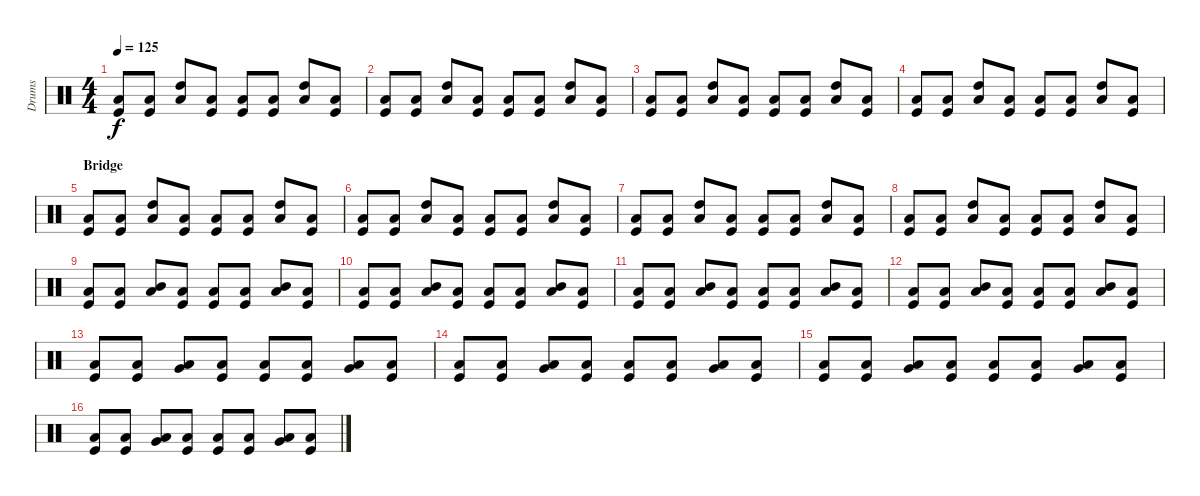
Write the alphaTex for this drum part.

\track ("Drums" "Drums") {instrument percussion}
\staff {score}
\articulation defaults
\ts (4 4)
\tempo 125
\clef neutral
\ks c
("Low Floor Tom (hit)" "Kick (hit)").8{dy f} ("Low Floor Tom (hit)" "Kick (hit)").8 ("Low Floor Tom (hit)" "High Tom (hit)").8 ("Low Floor Tom (hit)" "Kick (hit)").8 ("Low Floor Tom (hit)" "Kick (hit)").8 ("Low Floor Tom (hit)" "Kick (hit)").8 ("Low Floor Tom (hit)" "High Tom (hit)").8 ("Low Floor Tom (hit)" "Kick (hit)").8 |
("Low Floor Tom (hit)" "Kick (hit)").8 ("Low Floor Tom (hit)" "Kick (hit)").8 ("Low Floor Tom (hit)" "High Tom (hit)").8 ("Low Floor Tom (hit)" "Kick (hit)").8 ("Low Floor Tom (hit)" "Kick (hit)").8 ("Low Floor Tom (hit)" "Kick (hit)").8 ("Low Floor Tom (hit)" "High Tom (hit)").8 ("Low Floor Tom (hit)" "Kick (hit)").8 |
("Low Floor Tom (hit)" "Kick (hit)").8 ("Low Floor Tom (hit)" "Kick (hit)").8 ("Low Floor Tom (hit)" "High Tom (hit)").8 ("Low Floor Tom (hit)" "Kick (hit)").8 ("Low Floor Tom (hit)" "Kick (hit)").8 ("Low Floor Tom (hit)" "Kick (hit)").8 ("Low Floor Tom (hit)" "High Tom (hit)").8 ("Low Floor Tom (hit)" "Kick (hit)").8 |
("Low Floor Tom (hit)" "Kick (hit)").8 ("Low Floor Tom (hit)" "Kick (hit)").8 ("Low Floor Tom (hit)" "High Tom (hit)").8 ("Low Floor Tom (hit)" "Kick (hit)").8 ("Low Floor Tom (hit)" "Kick (hit)").8 ("Low Floor Tom (hit)" "Kick (hit)").8 ("Low Floor Tom (hit)" "High Tom (hit)").8 ("Low Floor Tom (hit)" "Kick (hit)").8 |
\section ("" "Bridge")
("Low Floor Tom (hit)" "Kick (hit)").8 ("Low Floor Tom (hit)" "Kick (hit)").8 ("Low Floor Tom (hit)" "High Tom (hit)").8 ("Low Floor Tom (hit)" "Kick (hit)").8 ("Low Floor Tom (hit)" "Kick (hit)").8 ("Low Floor Tom (hit)" "Kick (hit)").8 ("Low Floor Tom (hit)" "High Tom (hit)").8 ("Low Floor Tom (hit)" "Kick (hit)").8 |
("Low Floor Tom (hit)" "Kick (hit)").8 ("Low Floor Tom (hit)" "Kick (hit)").8 ("Low Floor Tom (hit)" "High Tom (hit)").8 ("Low Floor Tom (hit)" "Kick (hit)").8 ("Low Floor Tom (hit)" "Kick (hit)").8 ("Low Floor Tom (hit)" "Kick (hit)").8 ("Low Floor Tom (hit)" "High Tom (hit)").8 ("Low Floor Tom (hit)" "Kick (hit)").8 |
("Low Floor Tom (hit)" "Kick (hit)").8 ("Low Floor Tom (hit)" "Kick (hit)").8 ("Low Floor Tom (hit)" "High Tom (hit)").8 ("Low Floor Tom (hit)" "Kick (hit)").8 ("Low Floor Tom (hit)" "Kick (hit)").8 ("Low Floor Tom (hit)" "Kick (hit)").8 ("Low Floor Tom (hit)" "High Tom (hit)").8 ("Low Floor Tom (hit)" "Kick (hit)").8 |
("Low Floor Tom (hit)" "Kick (hit)").8 ("Low Floor Tom (hit)" "Kick (hit)").8 ("Low Floor Tom (hit)" "High Tom (hit)").8 ("Low Floor Tom (hit)" "Kick (hit)").8 ("Low Floor Tom (hit)" "Kick (hit)").8 ("Low Floor Tom (hit)" "Kick (hit)").8 ("Low Floor Tom (hit)" "High Tom (hit)").8 ("Low Floor Tom (hit)" "Kick (hit)").8 |
("Low Floor Tom (hit)" "Kick (hit)").8 ("Low Floor Tom (hit)" "Kick (hit)").8 ("Low Floor Tom (hit)" "Mid Tom (hit)").8 ("Low Floor Tom (hit)" "Kick (hit)").8 ("Low Floor Tom (hit)" "Kick (hit)").8 ("Low Floor Tom (hit)" "Kick (hit)").8 ("Low Floor Tom (hit)" "Mid Tom (hit)").8 ("Low Floor Tom (hit)" "Kick (hit)").8 |
("Low Floor Tom (hit)" "Kick (hit)").8 ("Low Floor Tom (hit)" "Kick (hit)").8 ("Low Floor Tom (hit)" "Mid Tom (hit)").8 ("Low Floor Tom (hit)" "Kick (hit)").8 ("Low Floor Tom (hit)" "Kick (hit)").8 ("Low Floor Tom (hit)" "Kick (hit)").8 ("Low Floor Tom (hit)" "Mid Tom (hit)").8 ("Low Floor Tom (hit)" "Kick (hit)").8 |
("Low Floor Tom (hit)" "Kick (hit)").8 ("Low Floor Tom (hit)" "Kick (hit)").8 ("Low Floor Tom (hit)" "Mid Tom (hit)").8 ("Low Floor Tom (hit)" "Kick (hit)").8 ("Low Floor Tom (hit)" "Kick (hit)").8 ("Low Floor Tom (hit)" "Kick (hit)").8 ("Low Floor Tom (hit)" "Mid Tom (hit)").8 ("Low Floor Tom (hit)" "Kick (hit)").8 |
("Low Floor Tom (hit)" "Kick (hit)").8 ("Low Floor Tom (hit)" "Kick (hit)").8 ("Low Floor Tom (hit)" "Mid Tom (hit)").8 ("Low Floor Tom (hit)" "Kick (hit)").8 ("Low Floor Tom (hit)" "Kick (hit)").8 ("Low Floor Tom (hit)" "Kick (hit)").8 ("Low Floor Tom (hit)" "Mid Tom (hit)").8 ("Low Floor Tom (hit)" "Kick (hit)").8 |
("Low Floor Tom (hit)" "Kick (hit)").8 ("Low Floor Tom (hit)" "Kick (hit)").8 ("Low Floor Tom (hit)" "Very Low Tom (hit)").8 ("Low Floor Tom (hit)" "Kick (hit)").8 ("Low Floor Tom (hit)" "Kick (hit)").8 ("Low Floor Tom (hit)" "Kick (hit)").8 ("Low Floor Tom (hit)" "Very Low Tom (hit)").8 ("Low Floor Tom (hit)" "Kick (hit)").8 |
("Low Floor Tom (hit)" "Kick (hit)").8 ("Low Floor Tom (hit)" "Kick (hit)").8 ("Low Floor Tom (hit)" "Very Low Tom (hit)").8 ("Low Floor Tom (hit)" "Kick (hit)").8 ("Low Floor Tom (hit)" "Kick (hit)").8 ("Low Floor Tom (hit)" "Kick (hit)").8 ("Low Floor Tom (hit)" "Very Low Tom (hit)").8 ("Low Floor Tom (hit)" "Kick (hit)").8 |
("Low Floor Tom (hit)" "Kick (hit)").8 ("Low Floor Tom (hit)" "Kick (hit)").8 ("Low Floor Tom (hit)" "Very Low Tom (hit)").8 ("Low Floor Tom (hit)" "Kick (hit)").8 ("Low Floor Tom (hit)" "Kick (hit)").8 ("Low Floor Tom (hit)" "Kick (hit)").8 ("Low Floor Tom (hit)" "Very Low Tom (hit)").8 ("Low Floor Tom (hit)" "Kick (hit)").8 |
("Low Floor Tom (hit)" "Kick (hit)").8 ("Low Floor Tom (hit)" "Kick (hit)").8 ("Low Floor Tom (hit)" "Very Low Tom (hit)").8 ("Low Floor Tom (hit)" "Kick (hit)").8 ("Low Floor Tom (hit)" "Kick (hit)").8 ("Low Floor Tom (hit)" "Kick (hit)").8 ("Low Floor Tom (hit)" "Very Low Tom (hit)").8 ("Low Floor Tom (hit)" "Kick (hit)").8
